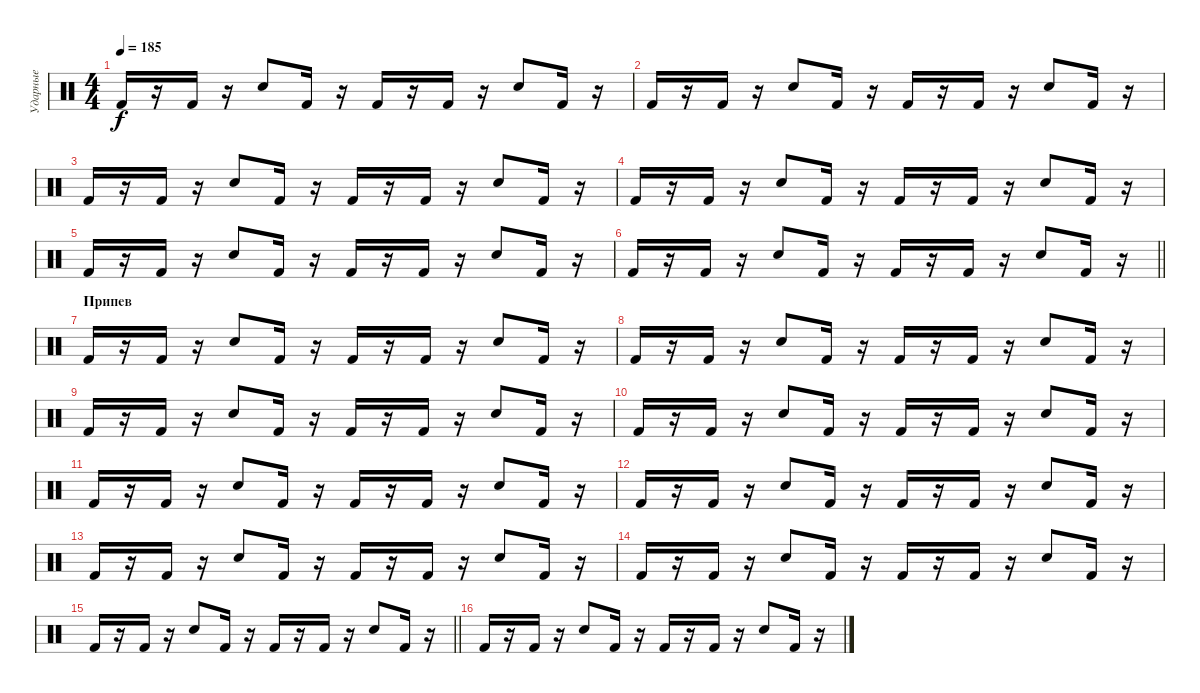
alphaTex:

\track ("Ударные" "Ударные") {instrument percussion}
\staff {score}
\articulation defaults
\ts (4 4)
\tempo 185
\clef neutral
\ks c "Kick (hit) 2".16{dy f}
r.16 "Kick (hit) 2".16 r.16 "Electric Snare (hit)".8 "Kick (hit) 2".16 r.16 "Kick (hit) 2".16 r.16 "Kick (hit) 2".16 r.16 "Electric Snare (hit)".8 "Kick (hit) 2".16 r.16 |
"Kick (hit) 2".16 r.16 "Kick (hit) 2".16 r.16 "Electric Snare (hit)".8 "Kick (hit) 2".16 r.16 "Kick (hit) 2".16 r.16 "Kick (hit) 2".16 r.16 "Electric Snare (hit)".8 "Kick (hit) 2".16 r.16 |
"Kick (hit) 2".16 r.16 "Kick (hit) 2".16 r.16 "Electric Snare (hit)".8 "Kick (hit) 2".16 r.16 "Kick (hit) 2".16 r.16 "Kick (hit) 2".16 r.16 "Electric Snare (hit)".8 "Kick (hit) 2".16 r.16 |
"Kick (hit) 2".16 r.16 "Kick (hit) 2".16 r.16 "Electric Snare (hit)".8 "Kick (hit) 2".16 r.16 "Kick (hit) 2".16 r.16 "Kick (hit) 2".16 r.16 "Electric Snare (hit)".8 "Kick (hit) 2".16 r.16 |
"Kick (hit) 2".16 r.16 "Kick (hit) 2".16 r.16 "Electric Snare (hit)".8 "Kick (hit) 2".16 r.16 "Kick (hit) 2".16 r.16 "Kick (hit) 2".16 r.16 "Electric Snare (hit)".8 "Kick (hit) 2".16 r.16 |
\barLineRight lightlight "Kick (hit) 2".16
r.16 "Kick (hit) 2".16 r.16 "Electric Snare (hit)".8 "Kick (hit) 2".16 r.16 "Kick (hit) 2".16 r.16 "Kick (hit) 2".16 r.16 "Electric Snare (hit)".8 "Kick (hit) 2".16 r.16 |
\section ("" "Припев")
"Kick (hit) 2".16 r.16 "Kick (hit) 2".16 r.16 "Electric Snare (hit)".8 "Kick (hit) 2".16 r.16 "Kick (hit) 2".16 r.16 "Kick (hit) 2".16 r.16 "Electric Snare (hit)".8 "Kick (hit) 2".16 r.16 |
"Kick (hit) 2".16 r.16 "Kick (hit) 2".16 r.16 "Electric Snare (hit)".8 "Kick (hit) 2".16 r.16 "Kick (hit) 2".16 r.16 "Kick (hit) 2".16 r.16 "Electric Snare (hit)".8 "Kick (hit) 2".16 r.16 |
"Kick (hit) 2".16 r.16 "Kick (hit) 2".16 r.16 "Electric Snare (hit)".8 "Kick (hit) 2".16 r.16 "Kick (hit) 2".16 r.16 "Kick (hit) 2".16 r.16 "Electric Snare (hit)".8 "Kick (hit) 2".16 r.16 |
"Kick (hit) 2".16 r.16 "Kick (hit) 2".16 r.16 "Electric Snare (hit)".8 "Kick (hit) 2".16 r.16 "Kick (hit) 2".16 r.16 "Kick (hit) 2".16 r.16 "Electric Snare (hit)".8 "Kick (hit) 2".16 r.16 |
"Kick (hit) 2".16 r.16 "Kick (hit) 2".16 r.16 "Electric Snare (hit)".8 "Kick (hit) 2".16 r.16 "Kick (hit) 2".16 r.16 "Kick (hit) 2".16 r.16 "Electric Snare (hit)".8 "Kick (hit) 2".16 r.16 |
"Kick (hit) 2".16 r.16 "Kick (hit) 2".16 r.16 "Electric Snare (hit)".8 "Kick (hit) 2".16 r.16 "Kick (hit) 2".16 r.16 "Kick (hit) 2".16 r.16 "Electric Snare (hit)".8 "Kick (hit) 2".16 r.16 |
"Kick (hit) 2".16 r.16 "Kick (hit) 2".16 r.16 "Electric Snare (hit)".8 "Kick (hit) 2".16 r.16 "Kick (hit) 2".16 r.16 "Kick (hit) 2".16 r.16 "Electric Snare (hit)".8 "Kick (hit) 2".16 r.16 |
"Kick (hit) 2".16 r.16 "Kick (hit) 2".16 r.16 "Electric Snare (hit)".8 "Kick (hit) 2".16 r.16 "Kick (hit) 2".16 r.16 "Kick (hit) 2".16 r.16 "Electric Snare (hit)".8 "Kick (hit) 2".16 r.16 |
\barLineRight lightlight "Kick (hit) 2".16
r.16 "Kick (hit) 2".16 r.16 "Electric Snare (hit)".8 "Kick (hit) 2".16 r.16 "Kick (hit) 2".16 r.16 "Kick (hit) 2".16 r.16 "Electric Snare (hit)".8 "Kick (hit) 2".16 r.16 |
"Kick (hit) 2".16 r.16 "Kick (hit) 2".16 r.16 "Electric Snare (hit)".8 "Kick (hit) 2".16 r.16 "Kick (hit) 2".16 r.16 "Kick (hit) 2".16 r.16 "Electric Snare (hit)".8 "Kick (hit) 2".16 r.16
